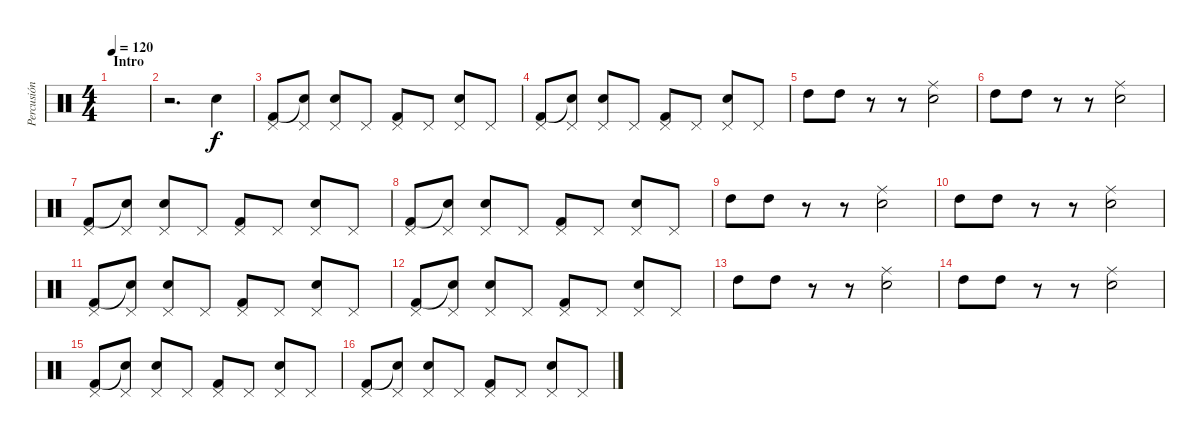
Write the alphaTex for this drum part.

\track ("Percusión" "Percusión") {instrument percussion}
\staff {score}
\articulation defaults
\ts (4 4)
\section ("" "Intro")
\tempo 120
\clef neutral
\ks c
|
r.2{d} "Snare (hit) 2".4 |
("Pedal Hi-Hat (hit)" "Kick (hit) 2").8 ("Pedal Hi-Hat (hit)" "Snare (hit)"{t}).8 ("Pedal Hi-Hat (hit)" "Snare (hit) 2").8 "Pedal Hi-Hat (hit)".8 ("Pedal Hi-Hat (hit)" "Kick (hit) 2").8 "Pedal Hi-Hat (hit)".8 ("Pedal Hi-Hat (hit)" "Snare (hit) 2").8 "Pedal Hi-Hat (hit)".8 |
("Pedal Hi-Hat (hit)" "Kick (hit) 2").8 ("Pedal Hi-Hat (hit)" "Snare (hit)"{t}).8 ("Pedal Hi-Hat (hit)" "Snare (hit) 2").8 "Pedal Hi-Hat (hit)".8 ("Pedal Hi-Hat (hit)" "Kick (hit) 2").8 "Pedal Hi-Hat (hit)".8 ("Pedal Hi-Hat (hit)" "Snare (hit) 2").8 "Pedal Hi-Hat (hit)".8 |
"High Tom (hit)".8 "High Tom (hit)".8 r.8 r.8 ("Snare (hit) 2" "Ride (middle)").2 |
"High Tom (hit)".8 "High Tom (hit)".8 r.8 r.8 ("Snare (hit) 2" "Ride (middle)").2 |
("Pedal Hi-Hat (hit)" "Kick (hit) 2").8 ("Pedal Hi-Hat (hit)" "Snare (hit)"{t}).8 ("Pedal Hi-Hat (hit)" "Snare (hit) 2").8 "Pedal Hi-Hat (hit)".8 ("Pedal Hi-Hat (hit)" "Kick (hit) 2").8 "Pedal Hi-Hat (hit)".8 ("Pedal Hi-Hat (hit)" "Snare (hit) 2").8 "Pedal Hi-Hat (hit)".8 |
("Pedal Hi-Hat (hit)" "Kick (hit) 2").8 ("Pedal Hi-Hat (hit)" "Snare (hit)"{t}).8 ("Pedal Hi-Hat (hit)" "Snare (hit) 2").8 "Pedal Hi-Hat (hit)".8 ("Pedal Hi-Hat (hit)" "Kick (hit) 2").8 "Pedal Hi-Hat (hit)".8 ("Pedal Hi-Hat (hit)" "Snare (hit) 2").8 "Pedal Hi-Hat (hit)".8 |
"High Tom (hit)".8 "High Tom (hit)".8 r.8 r.8 ("Snare (hit) 2" "Ride (middle)").2 |
"High Tom (hit)".8 "High Tom (hit)".8 r.8 r.8 ("Snare (hit) 2" "Ride (middle)").2 |
("Pedal Hi-Hat (hit)" "Kick (hit) 2").8 ("Pedal Hi-Hat (hit)" "Snare (hit)"{t}).8 ("Pedal Hi-Hat (hit)" "Snare (hit) 2").8 "Pedal Hi-Hat (hit)".8 ("Pedal Hi-Hat (hit)" "Kick (hit) 2").8 "Pedal Hi-Hat (hit)".8 ("Pedal Hi-Hat (hit)" "Snare (hit) 2").8 "Pedal Hi-Hat (hit)".8 |
("Pedal Hi-Hat (hit)" "Kick (hit) 2").8 ("Pedal Hi-Hat (hit)" "Snare (hit)"{t}).8 ("Pedal Hi-Hat (hit)" "Snare (hit) 2").8 "Pedal Hi-Hat (hit)".8 ("Pedal Hi-Hat (hit)" "Kick (hit) 2").8 "Pedal Hi-Hat (hit)".8 ("Pedal Hi-Hat (hit)" "Snare (hit) 2").8 "Pedal Hi-Hat (hit)".8 |
"High Tom (hit)".8 "High Tom (hit)".8 r.8 r.8 ("Snare (hit) 2" "Ride (middle)").2 |
"High Tom (hit)".8 "High Tom (hit)".8 r.8 r.8 ("Snare (hit) 2" "Ride (middle)").2 |
("Pedal Hi-Hat (hit)" "Kick (hit) 2").8 ("Pedal Hi-Hat (hit)" "Snare (hit)"{t}).8 ("Pedal Hi-Hat (hit)" "Snare (hit) 2").8 "Pedal Hi-Hat (hit)".8 ("Pedal Hi-Hat (hit)" "Kick (hit) 2").8 "Pedal Hi-Hat (hit)".8 ("Pedal Hi-Hat (hit)" "Snare (hit) 2").8 "Pedal Hi-Hat (hit)".8 |
("Pedal Hi-Hat (hit)" "Kick (hit) 2").8 ("Pedal Hi-Hat (hit)" "Snare (hit)"{t}).8 ("Pedal Hi-Hat (hit)" "Snare (hit) 2").8 "Pedal Hi-Hat (hit)".8 ("Pedal Hi-Hat (hit)" "Kick (hit) 2").8 "Pedal Hi-Hat (hit)".8 ("Pedal Hi-Hat (hit)" "Snare (hit) 2").8 "Pedal Hi-Hat (hit)".8
